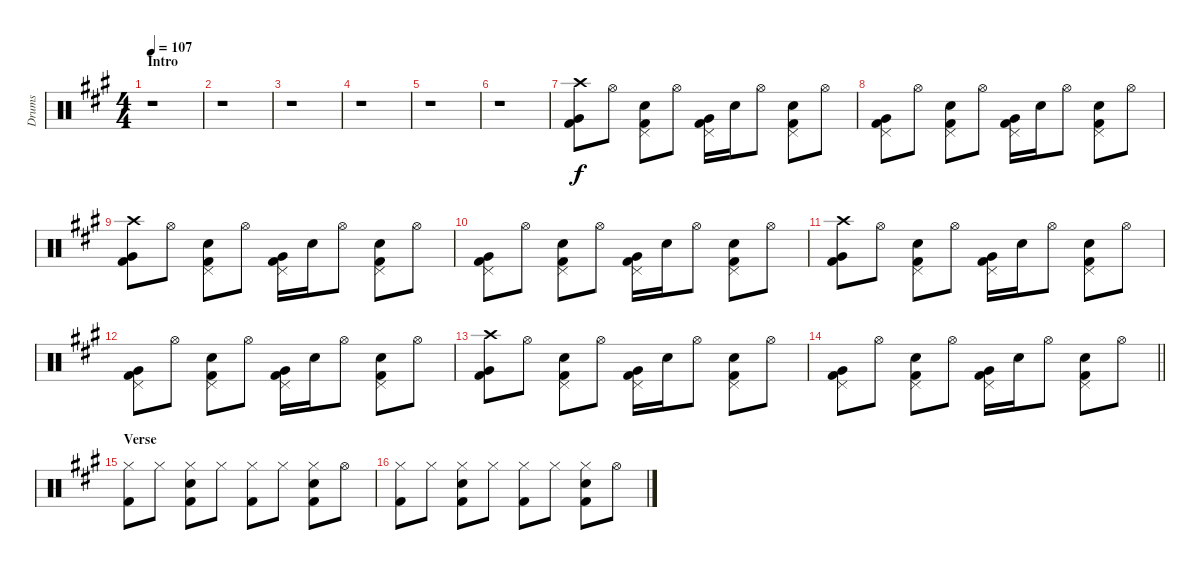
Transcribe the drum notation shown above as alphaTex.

\track ("Drums" "Drums") {instrument percussion}
\staff {score}
\articulation defaults
\ts (4 4)
\section ("" "Intro")
\tempo 107
\clef neutral
\ks f#minor
r.1{dy f} |
r.1 |
r.1 |
r.1 |
r.1 |
r.1 |
("Crash high (hit)" "Very Low Tom (hit)" "Kick (hit) 2").8 "Hi-Hat (open)".8 ("Electric Snare (hit)" "Pedal Hi-Hat (hit)" "Kick (hit) 2").8 "Hi-Hat (open)".8 ("Very Low Tom (hit)" "Pedal Hi-Hat (hit)" "Kick (hit) 2").16 "Electric Snare (hit)".16 "Hi-Hat (open)".8 ("Electric Snare (hit)" "Pedal Hi-Hat (hit)" "Kick (hit) 2").8 "Hi-Hat (open)".8 |
("Very Low Tom (hit)" "Pedal Hi-Hat (hit)" "Kick (hit) 2").8 "Hi-Hat (open)".8 ("Electric Snare (hit)" "Pedal Hi-Hat (hit)" "Kick (hit) 2").8 "Hi-Hat (open)".8 ("Very Low Tom (hit)" "Pedal Hi-Hat (hit)" "Kick (hit) 2").16 "Electric Snare (hit)".16 "Hi-Hat (open)".8 ("Electric Snare (hit)" "Pedal Hi-Hat (hit)" "Kick (hit) 2").8 "Hi-Hat (open)".8 |
("Crash high (hit)" "Very Low Tom (hit)" "Kick (hit) 2").8 "Hi-Hat (open)".8 ("Electric Snare (hit)" "Pedal Hi-Hat (hit)" "Kick (hit) 2").8 "Hi-Hat (open)".8 ("Very Low Tom (hit)" "Pedal Hi-Hat (hit)" "Kick (hit) 2").16 "Electric Snare (hit)".16 "Hi-Hat (open)".8 ("Electric Snare (hit)" "Pedal Hi-Hat (hit)" "Kick (hit) 2").8 "Hi-Hat (open)".8 |
("Very Low Tom (hit)" "Pedal Hi-Hat (hit)" "Kick (hit) 2").8 "Hi-Hat (open)".8 ("Electric Snare (hit)" "Pedal Hi-Hat (hit)" "Kick (hit) 2").8 "Hi-Hat (open)".8 ("Very Low Tom (hit)" "Pedal Hi-Hat (hit)" "Kick (hit) 2").16 "Electric Snare (hit)".16 "Hi-Hat (open)".8 ("Electric Snare (hit)" "Pedal Hi-Hat (hit)" "Kick (hit) 2").8 "Hi-Hat (open)".8 |
("Crash high (hit)" "Very Low Tom (hit)" "Kick (hit) 2").8 "Hi-Hat (open)".8 ("Electric Snare (hit)" "Pedal Hi-Hat (hit)" "Kick (hit) 2").8 "Hi-Hat (open)".8 ("Very Low Tom (hit)" "Pedal Hi-Hat (hit)" "Kick (hit) 2").16 "Electric Snare (hit)".16 "Hi-Hat (open)".8 ("Electric Snare (hit)" "Pedal Hi-Hat (hit)" "Kick (hit) 2").8 "Hi-Hat (open)".8 |
("Very Low Tom (hit)" "Pedal Hi-Hat (hit)" "Kick (hit) 2").8 "Hi-Hat (open)".8 ("Electric Snare (hit)" "Pedal Hi-Hat (hit)" "Kick (hit) 2").8 "Hi-Hat (open)".8 ("Very Low Tom (hit)" "Pedal Hi-Hat (hit)" "Kick (hit) 2").16 "Electric Snare (hit)".16 "Hi-Hat (open)".8 ("Electric Snare (hit)" "Pedal Hi-Hat (hit)" "Kick (hit) 2").8 "Hi-Hat (open)".8 |
("Crash high (hit)" "Very Low Tom (hit)" "Kick (hit) 2").8 "Hi-Hat (open)".8 ("Electric Snare (hit)" "Pedal Hi-Hat (hit)" "Kick (hit) 2").8 "Hi-Hat (open)".8 ("Very Low Tom (hit)" "Pedal Hi-Hat (hit)" "Kick (hit) 2").16 "Electric Snare (hit)".16 "Hi-Hat (open)".8 ("Electric Snare (hit)" "Pedal Hi-Hat (hit)" "Kick (hit) 2").8 "Hi-Hat (open)".8 |
\barLineRight lightlight
("Very Low Tom (hit)" "Pedal Hi-Hat (hit)" "Kick (hit) 2").8 "Hi-Hat (open)".8 ("Electric Snare (hit)" "Pedal Hi-Hat (hit)" "Kick (hit) 2").8 "Hi-Hat (open)".8 ("Very Low Tom (hit)" "Pedal Hi-Hat (hit)" "Kick (hit) 2").16 "Electric Snare (hit)".16 "Hi-Hat (open)".8 ("Electric Snare (hit)" "Pedal Hi-Hat (hit)" "Kick (hit) 2").8 "Hi-Hat (open)".8 |
\section ("" "Verse")
("Hi-Hat (closed)" "Kick (hit) 2").8 "Hi-Hat (closed)".8 ("Hi-Hat (closed)" "Electric Snare (hit)" "Kick (hit) 2").8 "Hi-Hat (closed)".8 ("Hi-Hat (closed)" "Kick (hit) 2").8 "Hi-Hat (closed)".8 ("Hi-Hat (closed)" "Electric Snare (hit)" "Kick (hit) 2").8 "Hi-Hat (open)".8 |
("Hi-Hat (closed)" "Kick (hit) 2").8 "Hi-Hat (closed)".8 ("Hi-Hat (closed)" "Electric Snare (hit)" "Kick (hit) 2").8 "Hi-Hat (closed)".8 ("Hi-Hat (closed)" "Kick (hit) 2").8 "Hi-Hat (closed)".8 ("Hi-Hat (closed)" "Electric Snare (hit)" "Kick (hit) 2").8 "Hi-Hat (open)".8
